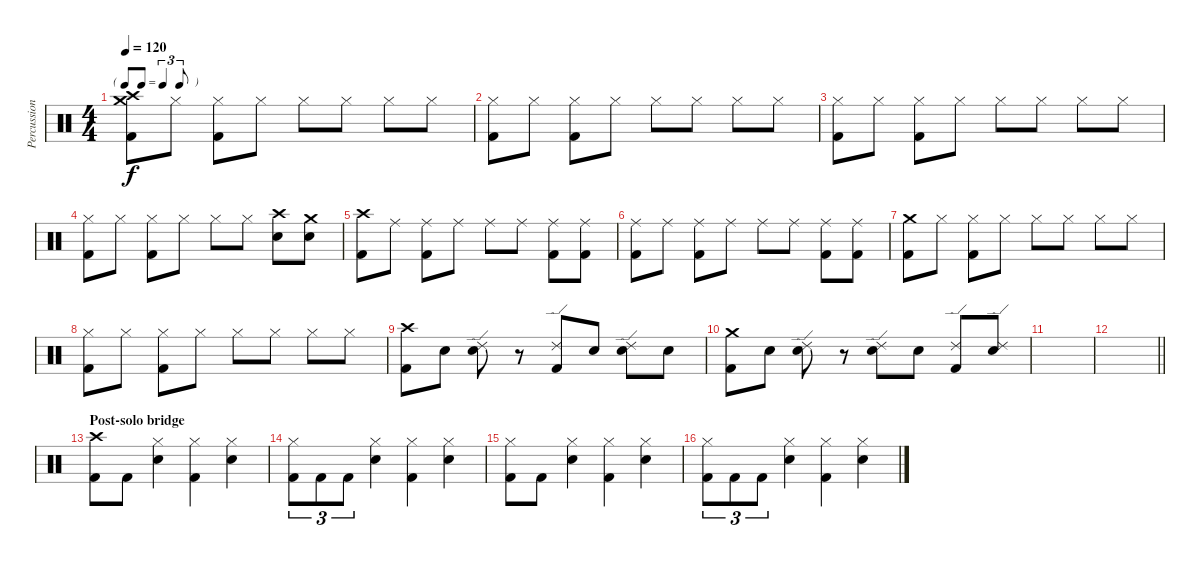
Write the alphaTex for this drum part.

\track ("Percussion" "Percussion") {instrument percussion}
\staff {score}
\articulation defaults
\ts (4 4)
\tf triplet8th
\tempo 120
\clef neutral
\ks c
("Crash high (hit)" "Crash medium (hit)" "Kick (hit) 2").8{dy f} "Hi-Hat (closed)".8 ("Hi-Hat (closed)" "Kick (hit) 2").8 "Hi-Hat (closed)".8 "Hi-Hat (closed)".8 "Hi-Hat (closed)".8 "Hi-Hat (closed)".8 "Hi-Hat (closed)".8 |
("Hi-Hat (closed)" "Kick (hit) 2").8 "Hi-Hat (closed)".8 ("Hi-Hat (closed)" "Kick (hit) 2").8 "Hi-Hat (closed)".8 "Hi-Hat (closed)".8 "Hi-Hat (closed)".8 "Hi-Hat (closed)".8 "Hi-Hat (closed)".8 |
("Hi-Hat (closed)" "Kick (hit) 2").8 "Hi-Hat (closed)".8 ("Hi-Hat (closed)" "Kick (hit) 2").8 "Hi-Hat (closed)".8 "Hi-Hat (closed)".8 "Hi-Hat (closed)".8 "Hi-Hat (closed)".8 "Hi-Hat (closed)".8 |
("Hi-Hat (closed)" "Kick (hit) 2").8 "Hi-Hat (closed)".8 ("Hi-Hat (closed)" "Kick (hit) 2").8 "Hi-Hat (closed)".8 "Hi-Hat (closed)".8 "Hi-Hat (closed)".8 ("Crash high (hit)" "Snare (hit) 2").8 ("Crash medium (hit)" "Snare (hit) 2").8 |
("Crash high (hit)" "Kick (hit) 2").8 "Ride (middle)".8 ("Ride (middle)" "Kick (hit) 2").8 "Ride (middle)".8 "Ride (middle)".8 "Ride (middle)".8 ("Ride (middle)" "Kick (hit) 2").8 ("Ride (middle)" "Kick (hit) 2").8 |
("Ride (middle)" "Kick (hit) 2").8 "Ride (middle)".8 ("Ride (middle)" "Kick (hit) 2").8 "Ride (middle)".8 "Ride (middle)".8 "Ride (middle)".8 ("Ride (middle)" "Kick (hit) 2").8 ("Ride (middle)" "Kick (hit) 2").8 |
("Crash medium (hit)" "Kick (hit) 2").8 "Hi-Hat (closed)".8 ("Hi-Hat (closed)" "Kick (hit) 2").8 "Hi-Hat (closed)".8 "Hi-Hat (closed)".8 "Hi-Hat (closed)".8 "Hi-Hat (closed)".8 "Hi-Hat (closed)".8 |
("Hi-Hat (closed)" "Kick (hit) 2").8 "Hi-Hat (closed)".8 ("Hi-Hat (closed)" "Kick (hit) 2").8 "Hi-Hat (closed)".8 "Hi-Hat (closed)".8 "Hi-Hat (closed)".8 "Hi-Hat (closed)".8 "Hi-Hat (closed)".8 |
("Crash high (hit)" "Kick (hit) 2").8 "Snare (hit) 2".8 ("Ride (edge) 2" "Snare (hit) 2").8 r.8 ("Ride (edge) 2" "Kick (hit) 2").8 "Snare (hit) 2".8 ("Ride (edge) 2" "Snare (hit) 2").8 "Snare (hit) 2".8 |
("Crash medium (hit)" "Kick (hit) 2").8 "Snare (hit) 2".8 ("Ride (edge) 2" "Snare (hit) 2").8 r.8 ("Ride (edge) 2" "Snare (hit) 2").8 "Snare (hit) 2".8 ("Ride (edge) 2" "Kick (hit) 2").8 ("Ride (edge) 2" "Snare (hit) 2").8 |
|
\barLineRight lightlight
|
\section ("" "Post-solo bridge")
("Crash high (hit)" "Kick (hit) 2").8 "Kick (hit) 2".8 ("Hi-Hat (closed)" "Snare (hit) 2").4 ("Hi-Hat (closed)" "Kick (hit) 2").4 ("Hi-Hat (closed)" "Snare (hit) 2").4 |
("Hi-Hat (closed)" "Kick (hit) 2").8{tu (3 2)} "Kick (hit) 2".8{tu (3 2)} "Kick (hit) 2".8{tu (3 2)} ("Hi-Hat (closed)" "Snare (hit) 2").4 ("Hi-Hat (closed)" "Kick (hit) 2").4 ("Hi-Hat (closed)" "Snare (hit) 2").4 |
("Hi-Hat (closed)" "Kick (hit) 2").8 "Kick (hit) 2".8 ("Hi-Hat (closed)" "Snare (hit) 2").4 ("Hi-Hat (closed)" "Kick (hit) 2").4 ("Hi-Hat (closed)" "Snare (hit) 2").4 |
("Hi-Hat (closed)" "Kick (hit) 2").8{tu (3 2)} "Kick (hit) 2".8{tu (3 2)} "Kick (hit) 2".8{tu (3 2)} ("Hi-Hat (closed)" "Snare (hit) 2").4 ("Hi-Hat (closed)" "Kick (hit) 2").4 ("Hi-Hat (closed)" "Snare (hit) 2").4
